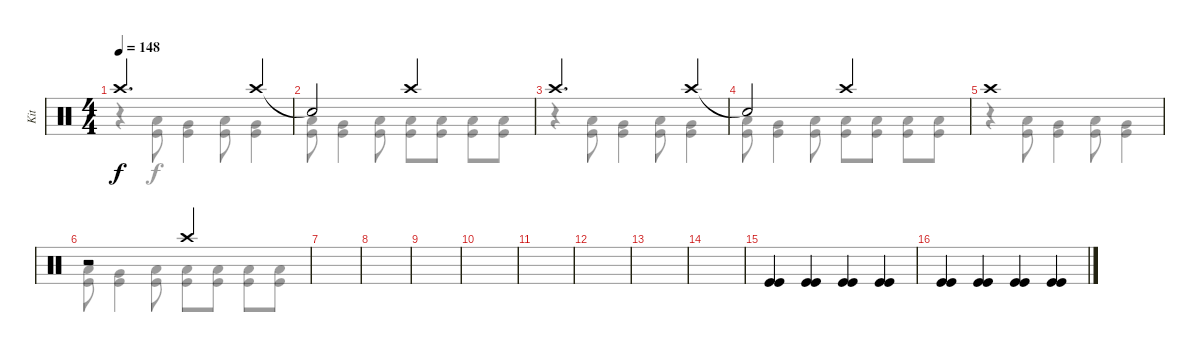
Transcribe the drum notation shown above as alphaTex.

\track ("Kit" "Kit") {instrument percussion}
\staff {score}
\articulation defaults
\voice
\ts (4 4)
\tempo 148
\clef neutral
\ks c "Crash high (hit)".2{d dy f} "Crash high (hit)".4
|
"Snare (hit)"{t}.2 "Crash high (hit)".2 |
"Crash high (hit)".2{d} "Crash high (hit)".4 |
"Snare (hit)"{t}.2 "Crash high (hit)".2 |
"Crash high (hit)".1 |
r.2 "Crash high (hit)".2 |
|
|
|
|
|
|
|
|
("Kick (hit)" "Kick (hit)").4{volume 5} ("Kick (hit)" "Kick (hit)").4 ("Kick (hit)" "Kick (hit)").4 ("Kick (hit)" "Kick (hit)").4 |
("Kick (hit)" "Kick (hit)").4 ("Kick (hit)" "Kick (hit)").4 ("Kick (hit)" "Kick (hit)").4 ("Kick (hit)" "Kick (hit)").4
\voice
\clef neutral
\ottava regular
\simile none
\ks c
r.4{dy f} ("Low Floor Tom (hit)" "Kick (hit)").8 ("Very Low Tom (hit)" "Kick (hit)").4 ("Low Floor Tom (hit)" "Kick (hit)").8 ("Very Low Tom (hit)" "Kick (hit)").4 |
("Low Floor Tom (hit)" "Kick (hit)").8 ("Very Low Tom (hit)" "Kick (hit)").4 ("Low Floor Tom (hit)" "Kick (hit)").8 ("Low Floor Tom (hit)" "Kick (hit)").8 ("Low Floor Tom (hit)" "Kick (hit)").8 ("Low Floor Tom (hit)" "Kick (hit)").8 ("Low Floor Tom (hit)" "Kick (hit)").8 |
r.4 ("Low Floor Tom (hit)" "Kick (hit)").8 ("Very Low Tom (hit)" "Kick (hit)").4 ("Low Floor Tom (hit)" "Kick (hit)").8 ("Very Low Tom (hit)" "Kick (hit)").4 |
("Low Floor Tom (hit)" "Kick (hit)").8 ("Very Low Tom (hit)" "Kick (hit)").4 ("Low Floor Tom (hit)" "Kick (hit)").8 ("Low Floor Tom (hit)" "Kick (hit)").8 ("Low Floor Tom (hit)" "Kick (hit)").8 ("Low Floor Tom (hit)" "Kick (hit)").8 ("Low Floor Tom (hit)" "Kick (hit)").8 |
r.4 ("Low Floor Tom (hit)" "Kick (hit)").8 ("Very Low Tom (hit)" "Kick (hit)").4 ("Low Floor Tom (hit)" "Kick (hit)").8 ("Very Low Tom (hit)" "Kick (hit)").4 |
("Low Floor Tom (hit)" "Kick (hit)").8 ("Very Low Tom (hit)" "Kick (hit)").4 ("Low Floor Tom (hit)" "Kick (hit)").8 ("Low Floor Tom (hit)" "Kick (hit)").8 ("Low Floor Tom (hit)" "Kick (hit)").8 ("Low Floor Tom (hit)" "Kick (hit)").8 ("Low Floor Tom (hit)" "Kick (hit)").8 |
|
|
|
|
|
|
|
|
|
